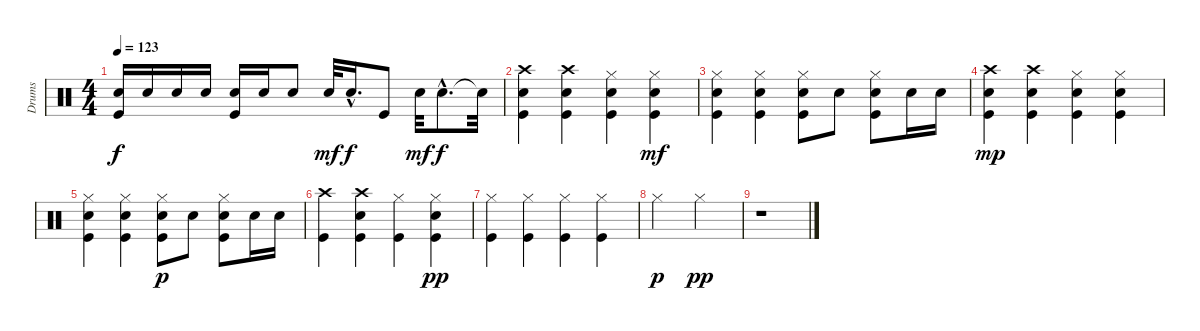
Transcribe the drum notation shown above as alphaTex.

\track ("Drums" "Drums") {instrument percussion}
\staff {score}
\articulation defaults
\ts (4 4)
\tempo 123
\clef neutral
\ks c
("Kick (hit)" "Electric Snare (hit)").16{dy f} "Electric Snare (hit)".16 "Electric Snare (hit)".16 "Electric Snare (hit)".16 ("Kick (hit)" "Electric Snare (hit)").16 "Electric Snare (hit)".16 "Electric Snare (hit)".8 "Electric Snare (hit)".32{dy mf} "Electric Snare (hit)"{hac}.16{d dy f} "Kick (hit)".8 "Electric Snare (hit)".32{dy mf} "Electric Snare (hit)"{hac}.8{d dy f} "Snare (hit)"{t}.32 |
("Crash high (hit)" "Kick (hit)" "Electric Snare (hit)").4 ("Crash high (hit)" "Kick (hit)" "Electric Snare (hit)").4 ("Kick (hit)" "Electric Snare (hit)" "Hi-Hat (closed)").4 ("Kick (hit)" "Electric Snare (hit)" "Hi-Hat (closed)").4{dy mf} |
("Electric Snare (hit)" "Kick (hit)" "Hi-Hat (closed)").4 ("Kick (hit)" "Electric Snare (hit)" "Hi-Hat (closed)").4 ("Kick (hit)" "Electric Snare (hit)" "Hi-Hat (closed)").8 "Electric Snare (hit)".8 ("Electric Snare (hit)" "Kick (hit)" "Hi-Hat (closed)").8 "Electric Snare (hit)".16 "Electric Snare (hit)".16 |
("Crash high (hit)" "Kick (hit)" "Electric Snare (hit)").4{dy mp} ("Crash high (hit)" "Kick (hit)" "Electric Snare (hit)").4 ("Kick (hit)" "Electric Snare (hit)" "Hi-Hat (closed)").4 ("Kick (hit)" "Electric Snare (hit)" "Hi-Hat (closed)").4 |
("Electric Snare (hit)" "Kick (hit)" "Hi-Hat (closed)").4 ("Kick (hit)" "Electric Snare (hit)" "Hi-Hat (closed)").4 ("Kick (hit)" "Electric Snare (hit)" "Hi-Hat (closed)").8{dy p} "Electric Snare (hit)".8 ("Electric Snare (hit)" "Kick (hit)" "Hi-Hat (closed)").8 "Electric Snare (hit)".16 "Electric Snare (hit)".16 |
("Crash high (hit)" "Kick (hit)").4 ("Crash high (hit)" "Kick (hit)" "Electric Snare (hit)").4 ("Kick (hit)" "Hi-Hat (closed)").4 ("Kick (hit)" "Electric Snare (hit)" "Hi-Hat (closed)").4{dy pp} |
("Kick (hit)" "Hi-Hat (closed)").4 ("Kick (hit)" "Hi-Hat (closed)").4 ("Kick (hit)" "Hi-Hat (closed)").4 ("Kick (hit)" "Hi-Hat (closed)").4 |
"Hi-Hat (closed)".2{dy p} "Hi-Hat (closed)".2{dy pp} |
r.1
